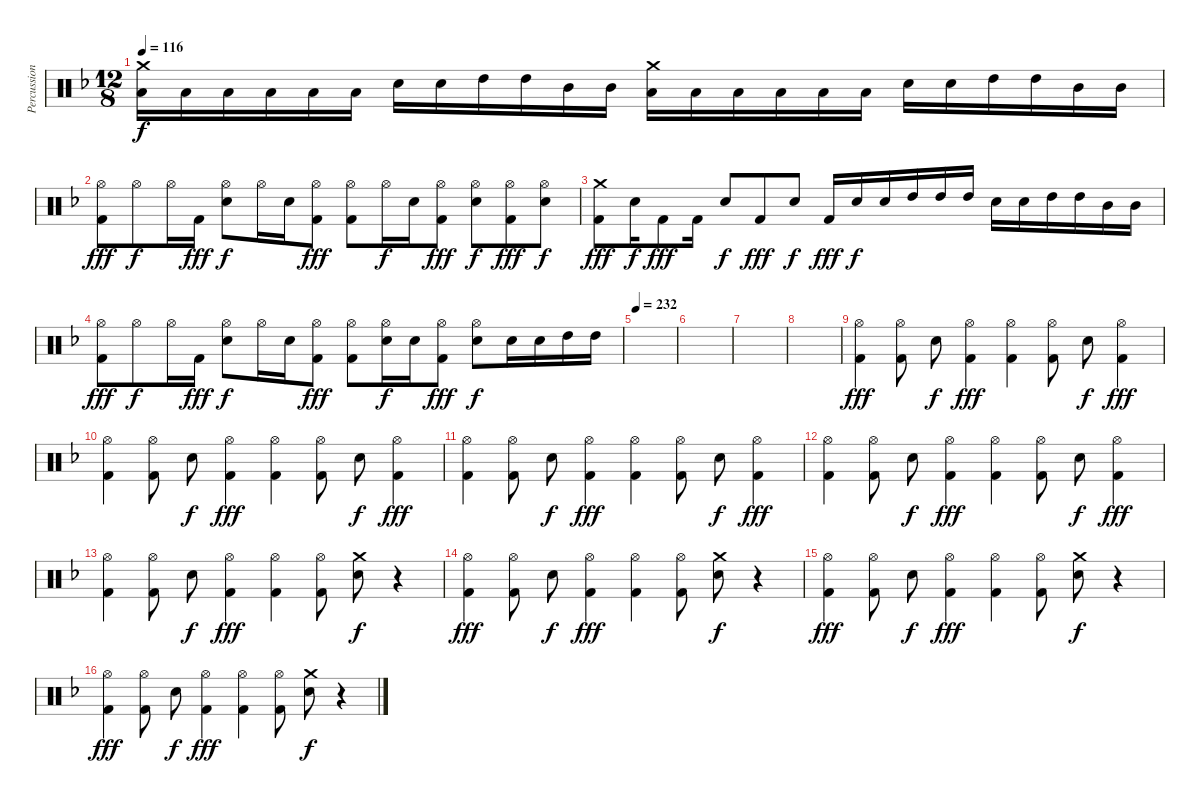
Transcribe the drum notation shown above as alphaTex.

\track ("Percussions" "Percussion") {instrument percussion}
\staff {score}
\articulation defaults
\ts (12 8)
\tempo 116
\clef neutral
\ks f
("Crash medium (hit)" "Low Tom (hit)").16{dy f} "Low Tom (hit)".16 "Low Tom (hit)".16 "Low Tom (hit)".16 "Low Tom (hit)".16 "Low Tom (hit)".16 "Snare (hit) 2".16 "Snare (hit) 2".16 "High Tom (hit)".16 "High Tom (hit)".16 "Mid Tom (hit)".16 "Mid Tom (hit)".16 ("Crash medium (hit)" "Low Tom (hit)").16 "Low Tom (hit)".16 "Low Tom (hit)".16 "Low Tom (hit)".16 "Low Tom (hit)".16 "Low Tom (hit)".16 "Snare (hit) 2".16 "Snare (hit) 2".16 "High Tom (hit)".16 "High Tom (hit)".16 "Mid Tom (hit)".16 "Mid Tom (hit)".16 |
("Hi-Hat (open)" "Kick (hit) 2").8{dy fff} "Hi-Hat (open)".8{dy f} "Hi-Hat (open)".16 "Kick (hit) 2".16{dy fff} ("Hi-Hat (open)" "Snare (hit) 2").8{dy f} "Hi-Hat (open)".16 "Snare (hit) 2".16 ("Hi-Hat (open)" "Kick (hit) 2").8{dy fff} ("Hi-Hat (open)" "Kick (hit) 2").8 "Hi-Hat (open)".16{dy f} "Snare (hit) 2".16 ("Hi-Hat (open)" "Kick (hit) 2").8{dy fff} ("Hi-Hat (open)" "Snare (hit) 2").8{dy f} ("Hi-Hat (open)" "Kick (hit) 2").8{dy fff} ("Hi-Hat (open)" "Snare (hit) 2").8{dy f} |
("Crash medium (hit)" "Kick (hit) 2").8{dy fff} "Snare (hit) 2".16{dy f} "Kick (hit) 2".8{dy fff} "Kick (hit) 2".16 "Snare (hit) 2".8{dy f} "Kick (hit) 2".8{dy fff} "Snare (hit) 2".8{dy f} "Kick (hit) 2".16{dy fff} "Snare (hit) 2".16{dy f} "Snare (hit) 2".16 "High Tom (hit)".16 "High Tom (hit)".16 "High Tom (hit)".16 "Snare (hit) 2".16 "Snare (hit) 2".16 "High Tom (hit)".16 "High Tom (hit)".16 "Mid Tom (hit)".16 "Mid Tom (hit)".16 |
("Hi-Hat (open)" "Kick (hit) 2").8{dy fff} "Hi-Hat (open)".8{dy f} "Hi-Hat (open)".16 "Kick (hit) 2".16{dy fff} ("Hi-Hat (open)" "Snare (hit) 2").8{dy f} "Hi-Hat (open)".16 "Snare (hit) 2".16 ("Hi-Hat (open)" "Kick (hit) 2").8{dy fff} ("Hi-Hat (open)" "Kick (hit) 2").8 ("Hi-Hat (open)" "Snare (hit) 2").16{dy f} "Snare (hit) 2".16 ("Hi-Hat (open)" "Kick (hit) 2").8{dy fff} ("Hi-Hat (open)" "Snare (hit) 2").8{dy f} "Snare (hit) 2".16 "Snare (hit) 2".16 "High Tom (hit)".16 "High Tom (hit)".16 |
\tempo 232
|
|
|
|
("Hi-Hat (open)" "Kick (hit) 2").4{dy fff} ("Hi-Hat (open)" "Kick (hit) 2").8 "Snare (hit) 2".8{dy f} ("Hi-Hat (open)" "Kick (hit) 2").4{dy fff} ("Hi-Hat (open)" "Kick (hit) 2").4 ("Hi-Hat (open)" "Kick (hit) 2").8 "Snare (hit) 2".8{dy f} ("Hi-Hat (open)" "Kick (hit) 2").4{dy fff} |
("Hi-Hat (open)" "Kick (hit) 2").4 ("Hi-Hat (open)" "Kick (hit) 2").8 "Snare (hit) 2".8{dy f} ("Hi-Hat (open)" "Kick (hit) 2").4{dy fff} ("Hi-Hat (open)" "Kick (hit) 2").4 ("Hi-Hat (open)" "Kick (hit) 2").8 "Snare (hit) 2".8{dy f} ("Hi-Hat (open)" "Kick (hit) 2").4{dy fff} |
("Hi-Hat (open)" "Kick (hit) 2").4 ("Hi-Hat (open)" "Kick (hit) 2").8 "Snare (hit) 2".8{dy f} ("Hi-Hat (open)" "Kick (hit) 2").4{dy fff} ("Hi-Hat (open)" "Kick (hit) 2").4 ("Hi-Hat (open)" "Kick (hit) 2").8 "Snare (hit) 2".8{dy f} ("Hi-Hat (open)" "Kick (hit) 2").4{dy fff} |
("Hi-Hat (open)" "Kick (hit) 2").4 ("Hi-Hat (open)" "Kick (hit) 2").8 "Snare (hit) 2".8{dy f} ("Hi-Hat (open)" "Kick (hit) 2").4{dy fff} ("Hi-Hat (open)" "Kick (hit) 2").4 ("Hi-Hat (open)" "Kick (hit) 2").8 "Snare (hit) 2".8{dy f} ("Hi-Hat (open)" "Kick (hit) 2").4{dy fff} |
("Hi-Hat (open)" "Kick (hit) 2").4 ("Hi-Hat (open)" "Kick (hit) 2").8 "Snare (hit) 2".8{dy f} ("Hi-Hat (open)" "Kick (hit) 2").4{dy fff} ("Hi-Hat (open)" "Kick (hit) 2").4 ("Hi-Hat (open)" "Kick (hit) 2").8 ("Crash medium (hit)" "Snare (hit) 2").8{dy f} r.4 |
("Hi-Hat (open)" "Kick (hit) 2").4{dy fff} ("Hi-Hat (open)" "Kick (hit) 2").8 "Snare (hit) 2".8{dy f} ("Hi-Hat (open)" "Kick (hit) 2").4{dy fff} ("Hi-Hat (open)" "Kick (hit) 2").4 ("Hi-Hat (open)" "Kick (hit) 2").8 ("Crash medium (hit)" "Snare (hit) 2").8{dy f} r.4 |
("Hi-Hat (open)" "Kick (hit) 2").4{dy fff} ("Hi-Hat (open)" "Kick (hit) 2").8 "Snare (hit) 2".8{dy f} ("Hi-Hat (open)" "Kick (hit) 2").4{dy fff} ("Hi-Hat (open)" "Kick (hit) 2").4 ("Hi-Hat (open)" "Kick (hit) 2").8 ("Crash medium (hit)" "Snare (hit) 2").8{dy f} r.4 |
("Hi-Hat (open)" "Kick (hit) 2").4{dy fff} ("Hi-Hat (open)" "Kick (hit) 2").8 "Snare (hit) 2".8{dy f} ("Hi-Hat (open)" "Kick (hit) 2").4{dy fff} ("Hi-Hat (open)" "Kick (hit) 2").4 ("Hi-Hat (open)" "Kick (hit) 2").8 ("Crash medium (hit)" "Snare (hit) 2").8{dy f} r.4
